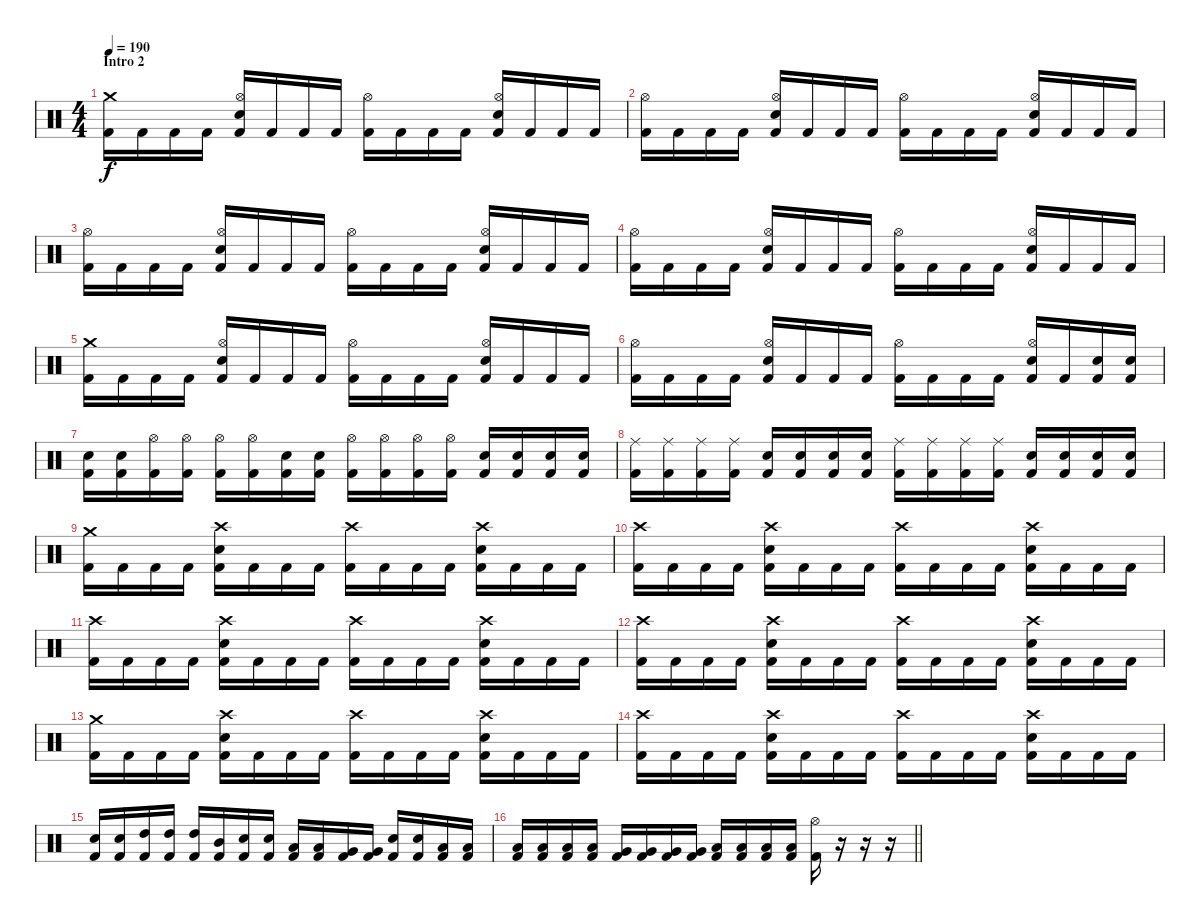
\track "" {instrument percussion}
\staff {score}
\articulation defaults
\ts (4 4)
\section ("" "Intro 2")
\tempo 190
\clef neutral
\ks c
("Crash medium (hit)" "Kick (hit) 2").16{dy f} "Kick (hit) 2".16 "Kick (hit) 2".16 "Kick (hit) 2".16 ("Hi-Hat (open)" "Electric Snare (hit)" "Kick (hit) 2").16 "Kick (hit) 2".16 "Kick (hit) 2".16 "Kick (hit) 2".16 ("Hi-Hat (open)" "Kick (hit) 2").16 "Kick (hit) 2".16 "Kick (hit) 2".16 "Kick (hit) 2".16 ("Hi-Hat (open)" "Electric Snare (hit)" "Kick (hit) 2").16 "Kick (hit) 2".16 "Kick (hit) 2".16 "Kick (hit) 2".16 |
("Hi-Hat (open)" "Kick (hit) 2").16 "Kick (hit) 2".16 "Kick (hit) 2".16 "Kick (hit) 2".16 ("Hi-Hat (open)" "Electric Snare (hit)" "Kick (hit) 2").16 "Kick (hit) 2".16 "Kick (hit) 2".16 "Kick (hit) 2".16 ("Hi-Hat (open)" "Kick (hit) 2").16 "Kick (hit) 2".16 "Kick (hit) 2".16 "Kick (hit) 2".16 ("Hi-Hat (open)" "Electric Snare (hit)" "Kick (hit) 2").16 "Kick (hit) 2".16 "Kick (hit) 2".16 "Kick (hit) 2".16 |
("Hi-Hat (open)" "Kick (hit) 2").16 "Kick (hit) 2".16 "Kick (hit) 2".16 "Kick (hit) 2".16 ("Hi-Hat (open)" "Electric Snare (hit)" "Kick (hit) 2").16 "Kick (hit) 2".16 "Kick (hit) 2".16 "Kick (hit) 2".16 ("Hi-Hat (open)" "Kick (hit) 2").16 "Kick (hit) 2".16 "Kick (hit) 2".16 "Kick (hit) 2".16 ("Hi-Hat (open)" "Electric Snare (hit)" "Kick (hit) 2").16 "Kick (hit) 2".16 "Kick (hit) 2".16 "Kick (hit) 2".16 |
("Hi-Hat (open)" "Kick (hit) 2").16 "Kick (hit) 2".16 "Kick (hit) 2".16 "Kick (hit) 2".16 ("Hi-Hat (open)" "Electric Snare (hit)" "Kick (hit) 2").16 "Kick (hit) 2".16 "Kick (hit) 2".16 "Kick (hit) 2".16 ("Hi-Hat (open)" "Kick (hit) 2").16 "Kick (hit) 2".16 "Kick (hit) 2".16 "Kick (hit) 2".16 ("Hi-Hat (open)" "Electric Snare (hit)" "Kick (hit) 2").16 "Kick (hit) 2".16 "Kick (hit) 2".16 "Kick (hit) 2".16 |
("Crash medium (hit)" "Kick (hit) 2").16 "Kick (hit) 2".16 "Kick (hit) 2".16 "Kick (hit) 2".16 ("Hi-Hat (open)" "Electric Snare (hit)" "Kick (hit) 2").16 "Kick (hit) 2".16 "Kick (hit) 2".16 "Kick (hit) 2".16 ("Hi-Hat (open)" "Kick (hit) 2").16 "Kick (hit) 2".16 "Kick (hit) 2".16 "Kick (hit) 2".16 ("Hi-Hat (open)" "Electric Snare (hit)" "Kick (hit) 2").16 "Kick (hit) 2".16 "Kick (hit) 2".16 "Kick (hit) 2".16 |
("Hi-Hat (open)" "Kick (hit) 2").16 "Kick (hit) 2".16 "Kick (hit) 2".16 "Kick (hit) 2".16 ("Hi-Hat (open)" "Electric Snare (hit)" "Kick (hit) 2").16 "Kick (hit) 2".16 "Kick (hit) 2".16 "Kick (hit) 2".16 ("Hi-Hat (open)" "Kick (hit) 2").16 "Kick (hit) 2".16 "Kick (hit) 2".16 "Kick (hit) 2".16 ("Hi-Hat (open)" "Electric Snare (hit)" "Kick (hit) 2").16 "Kick (hit) 2".16 ("Electric Snare (hit)" "Kick (hit) 2").16 ("Electric Snare (hit)" "Kick (hit) 2").16 |
("Electric Snare (hit)" "Kick (hit) 2").16 ("Electric Snare (hit)" "Kick (hit) 2").16 ("Hi-Hat (open)" "Kick (hit) 2").16 ("Hi-Hat (open)" "Kick (hit) 2").16 ("Hi-Hat (open)" "Kick (hit) 2").16 ("Hi-Hat (open)" "Kick (hit) 2").16 ("Electric Snare (hit)" "Kick (hit) 2").16 ("Electric Snare (hit)" "Kick (hit) 2").16 ("Hi-Hat (open)" "Kick (hit) 2").16 ("Hi-Hat (open)" "Kick (hit) 2").16 ("Hi-Hat (open)" "Kick (hit) 2").16 ("Hi-Hat (open)" "Kick (hit) 2").16 ("Electric Snare (hit)" "Kick (hit) 2").16 ("Electric Snare (hit)" "Kick (hit) 2").16 ("Electric Snare (hit)" "Kick (hit) 2").16 ("Electric Snare (hit)" "Kick (hit) 2").16 |
("Ride (middle)" "Kick (hit) 2").16 ("Ride (middle)" "Kick (hit) 2").16 ("Ride (middle)" "Kick (hit) 2").16 ("Ride (middle)" "Kick (hit) 2").16 ("Electric Snare (hit)" "Kick (hit) 2").16 ("Electric Snare (hit)" "Kick (hit) 2").16 ("Electric Snare (hit)" "Kick (hit) 2").16 ("Electric Snare (hit)" "Kick (hit) 2").16 ("Ride (middle)" "Kick (hit) 2").16 ("Ride (middle)" "Kick (hit) 2").16 ("Ride (middle)" "Kick (hit) 2").16 ("Ride (middle)" "Kick (hit) 2").16 ("Electric Snare (hit)" "Kick (hit) 2").16 ("Electric Snare (hit)" "Kick (hit) 2").16 ("Electric Snare (hit)" "Kick (hit) 2").16 ("Electric Snare (hit)" "Kick (hit) 2").16 |
("Crash medium (hit)" "Kick (hit) 2").16 "Kick (hit) 2".16 "Kick (hit) 2".16 "Kick (hit) 2".16 ("Crash high (hit)" "Electric Snare (hit)" "Kick (hit) 2").16 "Kick (hit) 2".16 "Kick (hit) 2".16 "Kick (hit) 2".16 ("Crash high (hit)" "Kick (hit) 2").16 "Kick (hit) 2".16 "Kick (hit) 2".16 "Kick (hit) 2".16 ("Crash high (hit)" "Electric Snare (hit)" "Kick (hit) 2").16 "Kick (hit) 2".16 "Kick (hit) 2".16 "Kick (hit) 2".16 |
("Crash high (hit)" "Kick (hit) 2").16 "Kick (hit) 2".16 "Kick (hit) 2".16 "Kick (hit) 2".16 ("Crash high (hit)" "Electric Snare (hit)" "Kick (hit) 2").16 "Kick (hit) 2".16 "Kick (hit) 2".16 "Kick (hit) 2".16 ("Crash high (hit)" "Kick (hit) 2").16 "Kick (hit) 2".16 "Kick (hit) 2".16 "Kick (hit) 2".16 ("Crash high (hit)" "Electric Snare (hit)" "Kick (hit) 2").16 "Kick (hit) 2".16 "Kick (hit) 2".16 "Kick (hit) 2".16 |
("Crash high (hit)" "Kick (hit) 2").16 "Kick (hit) 2".16 "Kick (hit) 2".16 "Kick (hit) 2".16 ("Crash high (hit)" "Electric Snare (hit)" "Kick (hit) 2").16 "Kick (hit) 2".16 "Kick (hit) 2".16 "Kick (hit) 2".16 ("Crash high (hit)" "Kick (hit) 2").16 "Kick (hit) 2".16 "Kick (hit) 2".16 "Kick (hit) 2".16 ("Crash high (hit)" "Electric Snare (hit)" "Kick (hit) 2").16 "Kick (hit) 2".16 "Kick (hit) 2".16 "Kick (hit) 2".16 |
("Crash high (hit)" "Kick (hit) 2").16 "Kick (hit) 2".16 "Kick (hit) 2".16 "Kick (hit) 2".16 ("Crash high (hit)" "Electric Snare (hit)" "Kick (hit) 2").16 "Kick (hit) 2".16 "Kick (hit) 2".16 "Kick (hit) 2".16 ("Crash high (hit)" "Kick (hit) 2").16 "Kick (hit) 2".16 "Kick (hit) 2".16 "Kick (hit) 2".16 ("Crash high (hit)" "Electric Snare (hit)" "Kick (hit) 2").16 "Kick (hit) 2".16 "Kick (hit) 2".16 "Kick (hit) 2".16 |
("Crash medium (hit)" "Kick (hit) 2").16 "Kick (hit) 2".16 "Kick (hit) 2".16 "Kick (hit) 2".16 ("Crash high (hit)" "Electric Snare (hit)" "Kick (hit) 2").16 "Kick (hit) 2".16 "Kick (hit) 2".16 "Kick (hit) 2".16 ("Crash high (hit)" "Kick (hit) 2").16 "Kick (hit) 2".16 "Kick (hit) 2".16 "Kick (hit) 2".16 ("Crash high (hit)" "Electric Snare (hit)" "Kick (hit) 2").16 "Kick (hit) 2".16 "Kick (hit) 2".16 "Kick (hit) 2".16 |
("Crash high (hit)" "Kick (hit) 2").16 "Kick (hit) 2".16 "Kick (hit) 2".16 "Kick (hit) 2".16 ("Crash high (hit)" "Electric Snare (hit)" "Kick (hit) 2").16 "Kick (hit) 2".16 "Kick (hit) 2".16 "Kick (hit) 2".16 ("Crash high (hit)" "Kick (hit) 2").16 "Kick (hit) 2".16 "Kick (hit) 2".16 "Kick (hit) 2".16 ("Crash high (hit)" "Electric Snare (hit)" "Kick (hit) 2").16 "Kick (hit) 2".16 "Kick (hit) 2".16 "Kick (hit) 2".16 |
("Electric Snare (hit)" "Kick (hit) 2").16 ("Electric Snare (hit)" "Kick (hit) 2").16 ("High Tom (hit)" "Kick (hit) 2").16 ("High Tom (hit)" "Kick (hit) 2").16 ("High Tom (hit)" "Kick (hit) 2").16 ("Mid Tom (hit)" "Kick (hit) 2").16 ("Electric Snare (hit)" "Kick (hit) 2").16 ("Electric Snare (hit)" "Kick (hit) 2").16 ("Low Tom (hit)" "Kick (hit) 2").16 ("Low Tom (hit)" "Kick (hit) 2").16 ("Very Low Tom (hit)" "Kick (hit) 2").16 ("Very Low Tom (hit)" "Kick (hit) 2").16 ("Electric Snare (hit)" "Kick (hit) 2").16 ("Electric Snare (hit)" "Kick (hit) 2").16 ("Low Tom (hit)" "Kick (hit) 2").16 ("Low Tom (hit)" "Kick (hit) 2").16 |
\barLineRight lightlight
("Low Tom (hit)" "Kick (hit) 2").16 ("Low Tom (hit)" "Kick (hit) 2").16 ("Low Tom (hit)" "Kick (hit) 2").16 ("Low Tom (hit)" "Kick (hit) 2").16 ("Very Low Tom (hit)" "Kick (hit) 2").16 ("Very Low Tom (hit)" "Kick (hit) 2").16 ("Very Low Tom (hit)" "Kick (hit) 2").16 ("Very Low Tom (hit)" "Kick (hit) 2").16 ("Low Floor Tom (hit)" "Kick (hit) 2").16 ("Low Floor Tom (hit)" "Kick (hit) 2").16 ("Low Floor Tom (hit)" "Kick (hit) 2").16 ("Low Floor Tom (hit)" "Kick (hit) 2").16 ("Hi-Hat (open)" "Kick (hit) 2").16 r.16 r.16{volume 0} r.16
